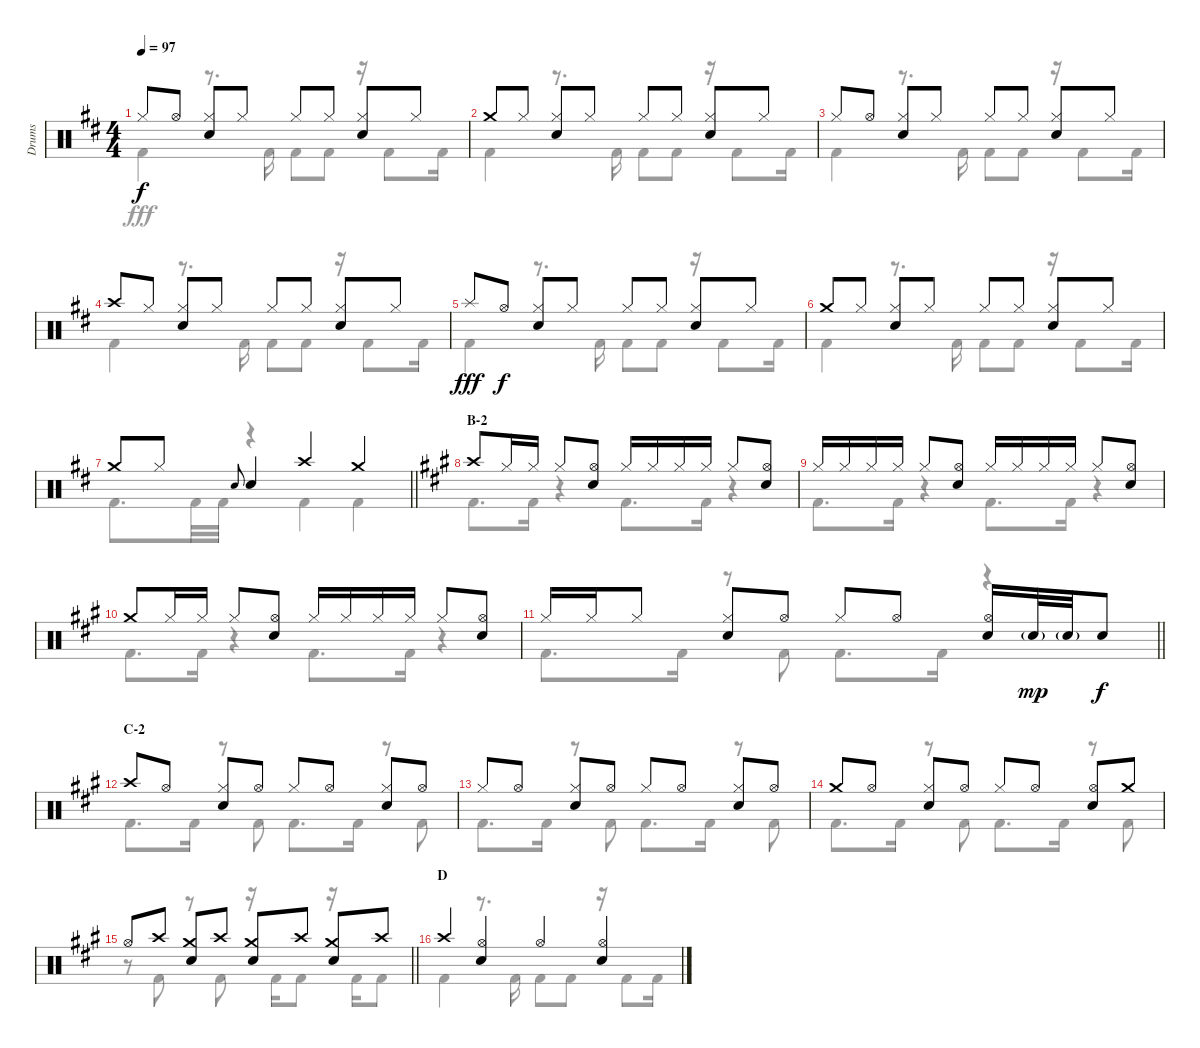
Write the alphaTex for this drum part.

\track ("Drums" "Drums") {instrument percussion}
\staff {score}
\articulation defaults
\voice
\ts (4 4)
\tempo 97
\clef neutral
\ks d "Hi-Hat (closed)".8{dy f} "Hi-Hat (open)".8
("Hi-Hat (closed)" "Snare (hit) 2").8 "Hi-Hat (closed)".8 "Hi-Hat (closed)".8 "Hi-Hat (closed)".8 ("Hi-Hat (closed)" "Snare (hit) 2").8 "Hi-Hat (closed)".8 |
"Crash medium (hit)".8 "Hi-Hat (closed)".8 ("Hi-Hat (closed)" "Snare (hit) 2").8 "Hi-Hat (closed)".8 "Hi-Hat (closed)".8 "Hi-Hat (closed)".8 ("Hi-Hat (closed)" "Snare (hit) 2").8 "Hi-Hat (closed)".8 |
"Hi-Hat (closed)".8 "Hi-Hat (open)".8 ("Hi-Hat (closed)" "Snare (hit) 2").8 "Hi-Hat (closed)".8 "Hi-Hat (closed)".8 "Hi-Hat (closed)".8 ("Hi-Hat (closed)" "Snare (hit) 2").8 "Hi-Hat (closed)".8 |
"Crash high (hit)".8 "Hi-Hat (closed)".8 ("Hi-Hat (closed)" "Snare (hit) 2").8 "Hi-Hat (closed)".8 "Hi-Hat (closed)".8 "Hi-Hat (closed)".8 ("Hi-Hat (closed)" "Snare (hit) 2").8 "Hi-Hat (closed)".8 |
"Splash (hit)".8{dy fff} "Hi-Hat (open)".8{dy f} ("Hi-Hat (closed)" "Snare (hit) 2").8 "Hi-Hat (closed)".8 "Hi-Hat (closed)".8 "Hi-Hat (closed)".8 ("Hi-Hat (closed)" "Snare (hit) 2").8 "Hi-Hat (closed)".8 |
"Crash medium (hit)".8 "Hi-Hat (closed)".8 ("Hi-Hat (closed)" "Snare (hit) 2").8 "Hi-Hat (closed)".8 "Hi-Hat (closed)".8 "Hi-Hat (closed)".8 ("Hi-Hat (closed)" "Snare (hit) 2").8 "Hi-Hat (closed)".8 |
\barLineRight lightlight "Crash medium (hit)".8 "Hi-Hat (closed)".8 "Snare (hit) 2".8{gr onbeat} "Snare (hit) 2".4 "Crash high (hit)".4 "Crash medium (hit)".4
|
\section ("" "B-2")
\ks a "Crash high (hit)".8 "Hi-Hat (closed)".16 "Hi-Hat (closed)".16 "Hi-Hat (closed)".8
("Hi-Hat (open)" "Snare (hit) 2").8 "Hi-Hat (closed)".16 "Hi-Hat (closed)".16 "Hi-Hat (closed)".16 "Hi-Hat (closed)".16 "Hi-Hat (closed)".8 ("Hi-Hat (open)" "Snare (hit) 2").8 |
"Hi-Hat (closed)".16 "Hi-Hat (closed)".16 "Hi-Hat (closed)".16 "Hi-Hat (closed)".16 "Hi-Hat (closed)".8 ("Hi-Hat (open)" "Snare (hit) 2").8 "Hi-Hat (closed)".16 "Hi-Hat (closed)".16 "Hi-Hat (closed)".16 "Hi-Hat (closed)".16 "Hi-Hat (closed)".8 ("Hi-Hat (open)" "Snare (hit) 2").8 |
"Crash medium (hit)".8 "Hi-Hat (closed)".16 "Hi-Hat (closed)".16 "Hi-Hat (closed)".8 ("Hi-Hat (open)" "Snare (hit) 2").8 "Hi-Hat (closed)".16 "Hi-Hat (closed)".16 "Hi-Hat (closed)".16 "Hi-Hat (closed)".16 "Hi-Hat (closed)".8 ("Hi-Hat (open)" "Snare (hit) 2").8 |
\barLineRight lightlight "Hi-Hat (closed)".16 "Hi-Hat (closed)".16 "Hi-Hat (closed)".8
("Hi-Hat (closed)" "Snare (hit) 2").8 "Hi-Hat (open)".8 "Hi-Hat (closed)".8 "Hi-Hat (open)".8 ("Hi-Hat (open)" "Snare (hit) 2").16 "Snare (hit) 2"{g}.32{dy mp} "Snare (hit) 2"{g}.32 "Snare (hit) 2".8{dy f} |
\section ("" "C-2")
"Crash high (hit)".8 "Hi-Hat (open)".8 ("Hi-Hat (closed)" "Snare (hit) 2").8 "Hi-Hat (open)".8 "Hi-Hat (closed)".8 "Hi-Hat (open)".8 ("Hi-Hat (closed)" "Snare (hit) 2").8 "Hi-Hat (open)".8 |
"Hi-Hat (closed)".8 "Hi-Hat (open)".8 ("Hi-Hat (closed)" "Snare (hit) 2").8 "Hi-Hat (open)".8 "Hi-Hat (closed)".8 "Hi-Hat (open)".8 ("Hi-Hat (closed)" "Snare (hit) 2").8 "Hi-Hat (open)".8 |
"Crash medium (hit)".8 "Hi-Hat (open)".8 ("Hi-Hat (closed)" "Snare (hit) 2").8 "Hi-Hat (open)".8 "Hi-Hat (closed)".8 "Hi-Hat (open)".8 ("Hi-Hat (open)" "Snare (hit) 2").8 "Crash medium (hit)".8 |
\barLineRight lightlight "Hi-Hat (open)".8 "Crash high (hit)".8
("Crash medium (hit)" "Snare (hit) 2").8 "Crash high (hit)".8 ("Crash medium (hit)" "Snare (hit) 2").8 "Crash high (hit)".8 ("Crash medium (hit)" "Snare (hit) 2").8 "Crash high (hit)".8 |
\section ("" "D")
"Crash high (hit)".4 ("Hi-Hat (open)" "Snare (hit) 2").4 "Hi-Hat (open)".4 ("Hi-Hat (open)" "Snare (hit) 2").4
\voice
\clef neutral
\ottava regular
\simile none
\ks d "Kick (hit) 2".4{dy fff}
r.8{d} "Kick (hit) 2".16 "Kick (hit) 2".8 "Kick (hit) 2".8 r.16 "Kick (hit) 2".8 "Kick (hit) 2".16 |
"Kick (hit) 2".4 r.8{d} "Kick (hit) 2".16 "Kick (hit) 2".8 "Kick (hit) 2".8 r.16 "Kick (hit) 2".8 "Kick (hit) 2".16 |
"Kick (hit) 2".4 r.8{d} "Kick (hit) 2".16 "Kick (hit) 2".8 "Kick (hit) 2".8 r.16 "Kick (hit) 2".8 "Kick (hit) 2".16 |
"Kick (hit) 2".4 r.8{d} "Kick (hit) 2".16 "Kick (hit) 2".8 "Kick (hit) 2".8 r.16 "Kick (hit) 2".8 "Kick (hit) 2".16 |
"Kick (hit) 2".4 r.8{d} "Kick (hit) 2".16 "Kick (hit) 2".8 "Kick (hit) 2".8 r.16 "Kick (hit) 2".8 "Kick (hit) 2".16 |
"Kick (hit) 2".4 r.8{d} "Kick (hit) 2".16 "Kick (hit) 2".8 "Kick (hit) 2".8 r.16 "Kick (hit) 2".8 "Kick (hit) 2".16 |
\barLineRight lightlight "Kick (hit) 2".8{d} "Kick (hit) 2".32 "Kick (hit) 2".32
r.4 "Kick (hit) 2".4 "Kick (hit) 2".4 |
\ks a "Kick (hit) 2".8{d} "Kick (hit) 2".16
r.4 "Kick (hit) 2".8{d} "Kick (hit) 2".16 r.4 |
"Kick (hit) 2".8{d} "Kick (hit) 2".16 r.4 "Kick (hit) 2".8{d} "Kick (hit) 2".16 r.4 |
"Kick (hit) 2".8{d} "Kick (hit) 2".16 r.4 "Kick (hit) 2".8{d} "Kick (hit) 2".16 r.4 |
\barLineRight lightlight "Kick (hit) 2".8{d} "Kick (hit) 2".16
r.8 "Kick (hit) 2".8 "Kick (hit) 2".8{d} "Kick (hit) 2".16 r.4 |
"Kick (hit) 2".8{d} "Kick (hit) 2".16 r.8 "Kick (hit) 2".8 "Kick (hit) 2".8{d} "Kick (hit) 2".16 r.8 "Kick (hit) 2".8 |
"Kick (hit) 2".8{d} "Kick (hit) 2".16 r.8 "Kick (hit) 2".8 "Kick (hit) 2".8{d} "Kick (hit) 2".16 r.8 "Kick (hit) 2".8 |
"Kick (hit) 2".8{d} "Kick (hit) 2".16 r.8 "Kick (hit) 2".8 "Kick (hit) 2".8{d} "Kick (hit) 2".16 r.8 "Kick (hit) 2".8 |
\barLineRight lightlight
r.8 "Kick (hit) 2".8 r.8 "Kick (hit) 2".8 r.16 "Kick (hit) 2".16 "Kick (hit) 2".8 r.16 "Kick (hit) 2".16 "Kick (hit) 2".8 |
"Kick (hit) 2".4 r.8{d} "Kick (hit) 2".16 "Kick (hit) 2".8 "Kick (hit) 2".8 r.16 "Kick (hit) 2".8 "Kick (hit) 2".16
